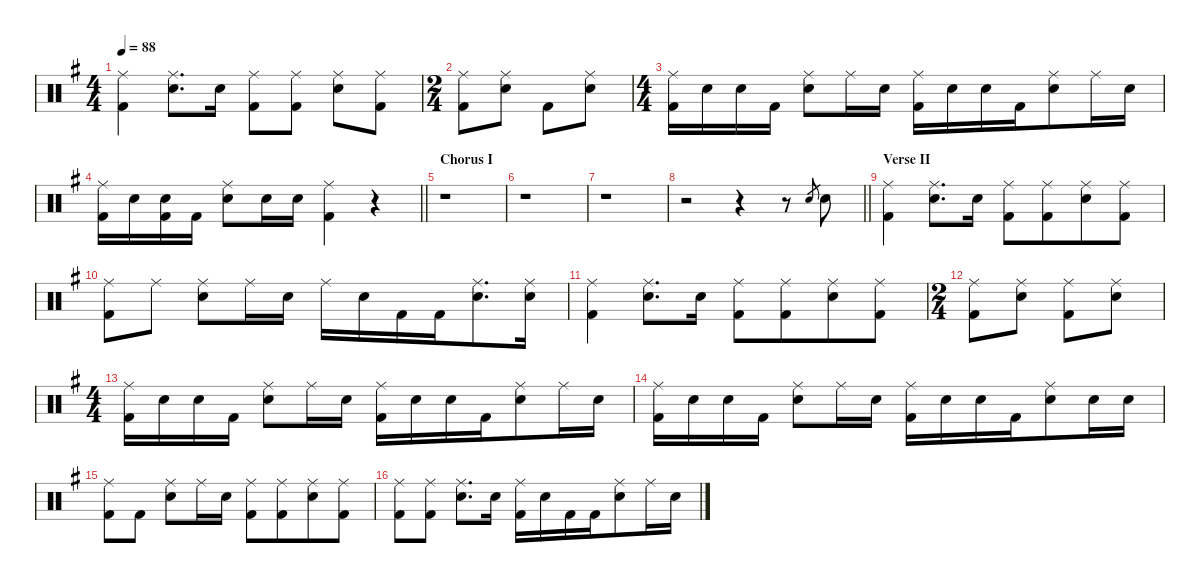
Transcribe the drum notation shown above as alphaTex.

\defaultSystemsLayout 4
\hideDynamics
\bracketExtendMode nobrackets
\singleTrackTrackNamePolicy hidden
\multiTrackTrackNamePolicy hidden
\firstSystemTrackNameMode fullname
\firstSystemTrackNameOrientation horizontal
\otherSystemsTrackNameOrientation horizontal
\track ("Drums" "drm.") {instrument percussion}
\staff {score}
\articulation defaults
\ts (4 4)
\tempo 88
\clef neutral
\ks g
("Ride (middle)"{acc forcenatural} "Kick (hit) 2"{acc forcenatural}).4{dy f beam Down} ("Ride (middle)"{acc forcenatural} "Snare (hit) 2"{acc forcenatural}).8{d beam Down} "Snare (hit) 2"{acc forcenatural}.16{beam Down} ("Ride (middle)"{acc forcenatural} "Kick (hit) 2"{acc forcenatural}).8{beam Down} ("Ride (middle)"{acc forcenatural} "Kick (hit) 2"{acc forcenatural}).8{beam Down} ("Ride (middle)"{acc forcenatural} "Snare (hit) 2"{acc forcenatural}).8{beam Down} ("Ride (middle)"{acc forcenatural} "Kick (hit) 2"{acc forcenatural}).8{beam Down} |
\ts (2 4)
\beaming (8 2 2)
("Ride (middle)"{acc forcenatural} "Kick (hit) 2"{acc forcenatural}).8{beam Down} ("Ride (middle)"{acc forcenatural} "Snare (hit) 2"{acc forcenatural}).8{beam Down} "Kick (hit) 2"{acc forcenatural}.8{beam Down} ("Ride (middle)"{acc forcenatural} "Snare (hit) 2"{acc forcenatural}).8{beam Down} |
\ts (4 4)
\beaming (8 2 2 4)
("Ride (middle)"{acc forcenatural} "Kick (hit) 2"{acc forcenatural}).16{beam Down} "Snare (hit) 2"{acc forcenatural}.16{beam Down} "Snare (hit) 2"{acc forcenatural}.16{beam Down} "Kick (hit) 2"{acc forcenatural}.16{beam Down} ("Ride (middle)"{acc forcenatural} "Snare (hit) 2"{acc forcenatural}).8{beam Down} "Ride (middle)"{acc forcenatural}.16{beam Down} "Snare (hit) 2"{acc forcenatural}.16{beam Down} ("Ride (middle)"{acc forcenatural} "Kick (hit) 2"{acc forcenatural}).16{beam Down} "Snare (hit) 2"{acc forcenatural}.16{beam Down} "Snare (hit) 2"{acc forcenatural}.16{beam Down} "Kick (hit) 2"{acc forcenatural}.16{beam Down} ("Ride (middle)"{acc forcenatural} "Snare (hit) 2"{acc forcenatural}).8{beam Down} "Ride (middle)"{acc forcenatural}.16{beam Down} "Snare (hit) 2"{acc forcenatural}.16{beam Down} |
\barLineRight lightlight
("Ride (middle)"{acc forcenatural} "Kick (hit) 2"{acc forcenatural}).16{beam Down} "Snare (hit) 2"{acc forcenatural}.16{beam Down} ("Snare (hit) 2"{acc forcenatural} "Kick (hit) 2"{acc forcenatural}).16{beam Down} "Kick (hit) 2"{acc forcenatural}.16{beam Down} ("Ride (middle)"{acc forcenatural} "Snare (hit) 2"{acc forcenatural}).8{beam Down} "Snare (hit) 2"{acc forcenatural}.16{beam Down} "Snare (hit) 2"{acc forcenatural}.16{beam Down} ("Ride (middle)"{acc forcenatural} "Kick (hit) 2"{acc forcenatural}).4{beam Down} r.4{beam Down} |
\section ("" "Chorus I")
r.1{beam Down} |
r.1{beam Down} |
r.1{beam Down} |
\barLineRight lightlight
r.2{beam Down} r.4{beam Down} r.8{beam Down} "Snare (hit) 2"{acc forcenatural}.8{gr dy mf beam Up} "Snare (hit) 2"{acc forcenatural}.8{dy f beam Down} |
\section ("" "Verse II")
("Ride (middle)"{acc forcenatural} "Kick (hit) 2"{acc forcenatural}).4{beam Down} ("Ride (middle)"{acc forcenatural} "Snare (hit) 2"{acc forcenatural}).8{d beam Down} "Snare (hit) 2"{acc forcenatural}.16{beam Down} ("Ride (middle)"{acc forcenatural} "Kick (hit) 2"{acc forcenatural}).8{beam Down} ("Ride (middle)"{acc forcenatural} "Kick (hit) 2"{acc forcenatural}).8{beam Down} ("Ride (middle)"{acc forcenatural} "Snare (hit) 2"{acc forcenatural}).8{beam Down} ("Ride (middle)"{acc forcenatural} "Kick (hit) 2"{acc forcenatural}).8{beam Down} |
("Ride (middle)"{acc forcenatural} "Kick (hit) 2"{acc forcenatural}).8{beam Down} "Ride (middle)"{acc forcenatural}.8{beam Down} ("Ride (middle)"{acc forcenatural} "Snare (hit) 2"{acc forcenatural}).8{beam Down} "Ride (middle)"{acc forcenatural}.16{beam Down} "Snare (hit) 2"{acc forcenatural}.16{beam Down} "Ride (middle)"{acc forcenatural}.16{beam Down} "Snare (hit) 2"{acc forcenatural}.16{beam Down} "Kick (hit) 2"{acc forcenatural}.16{beam Down} "Kick (hit) 2"{acc forcenatural}.16{beam Down} ("Ride (middle)"{acc forcenatural} "Snare (hit) 2"{acc forcenatural}).8{d beam Down} ("Ride (middle)"{acc forcenatural} "Snare (hit) 2"{acc forcenatural}).16{beam Down} |
("Ride (middle)"{acc forcenatural} "Kick (hit) 2"{acc forcenatural}).4{beam Down} ("Ride (middle)"{acc forcenatural} "Snare (hit) 2"{acc forcenatural}).8{d beam Down} "Snare (hit) 2"{acc forcenatural}.16{beam Down} ("Ride (middle)"{acc forcenatural} "Kick (hit) 2"{acc forcenatural}).8{beam Down} ("Ride (middle)"{acc forcenatural} "Kick (hit) 2"{acc forcenatural}).8{beam Down} ("Ride (middle)"{acc forcenatural} "Snare (hit) 2"{acc forcenatural}).8{beam Down} ("Ride (middle)"{acc forcenatural} "Kick (hit) 2"{acc forcenatural}).8{beam Down} |
\ts (2 4)
\beaming (8 2 2)
("Ride (middle)"{acc forcenatural} "Kick (hit) 2"{acc forcenatural}).8{beam Down} ("Ride (middle)"{acc forcenatural} "Snare (hit) 2"{acc forcenatural}).8{beam Down} ("Ride (middle)"{acc forcenatural} "Kick (hit) 2"{acc forcenatural}).8{beam Down} ("Ride (middle)"{acc forcenatural} "Snare (hit) 2"{acc forcenatural}).8{beam Down} |
\ts (4 4)
\beaming (8 2 2 4)
("Ride (middle)"{acc forcenatural} "Kick (hit) 2"{acc forcenatural}).16{beam Down} "Snare (hit) 2"{acc forcenatural}.16{beam Down} "Snare (hit) 2"{acc forcenatural}.16{beam Down} "Kick (hit) 2"{acc forcenatural}.16{beam Down} ("Ride (middle)"{acc forcenatural} "Snare (hit) 2"{acc forcenatural}).8{beam Down} "Ride (middle)"{acc forcenatural}.16{beam Down} "Snare (hit) 2"{acc forcenatural}.16{beam Down} ("Ride (middle)"{acc forcenatural} "Kick (hit) 2"{acc forcenatural}).16{beam Down} "Snare (hit) 2"{acc forcenatural}.16{beam Down} "Snare (hit) 2"{acc forcenatural}.16{beam Down} "Kick (hit) 2"{acc forcenatural}.16{beam Down} ("Ride (middle)"{acc forcenatural} "Snare (hit) 2"{acc forcenatural}).8{beam Down} "Ride (middle)"{acc forcenatural}.16{beam Down} "Snare (hit) 2"{acc forcenatural}.16{beam Down} |
("Ride (middle)"{acc forcenatural} "Kick (hit) 2"{acc forcenatural}).16{beam Down} "Snare (hit) 2"{acc forcenatural}.16{beam Down} "Snare (hit) 2"{acc forcenatural}.16{beam Down} "Kick (hit) 2"{acc forcenatural}.16{beam Down} ("Ride (middle)"{acc forcenatural} "Snare (hit) 2"{acc forcenatural}).8{beam Down} "Ride (middle)"{acc forcenatural}.16{beam Down} "Snare (hit) 2"{acc forcenatural}.16{beam Down} ("Ride (middle)"{acc forcenatural} "Kick (hit) 2"{acc forcenatural}).16{beam Down} "Snare (hit) 2"{acc forcenatural}.16{beam Down} "Snare (hit) 2"{acc forcenatural}.16{beam Down} "Kick (hit) 2"{acc forcenatural}.16{beam Down} ("Ride (middle)"{acc forcenatural} "Snare (hit) 2"{acc forcenatural}).8{beam Down} "Snare (hit) 2"{acc forcenatural}.16{beam Down} "Snare (hit) 2"{acc forcenatural}.16{beam Down} |
("Ride (middle)"{acc forcenatural} "Kick (hit) 2"{acc forcenatural}).8{beam Down} "Kick (hit) 2"{acc forcenatural}.8{beam Down} ("Ride (middle)"{acc forcenatural} "Snare (hit) 2"{acc forcenatural}).8{beam Down} "Ride (middle)"{acc forcenatural}.16{beam Down} "Snare (hit) 2"{acc forcenatural}.16{beam Down} ("Ride (middle)"{acc forcenatural} "Kick (hit) 2"{acc forcenatural}).8{beam Down} ("Ride (middle)"{acc forcenatural} "Kick (hit) 2"{acc forcenatural}).8{beam Down} ("Ride (middle)"{acc forcenatural} "Snare (hit) 2"{acc forcenatural}).8{beam Down} ("Ride (middle)"{acc forcenatural} "Kick (hit) 2"{acc forcenatural}).8{beam Down} |
("Ride (middle)"{acc forcenatural} "Kick (hit) 2"{acc forcenatural}).8{beam Down} ("Ride (middle)"{acc forcenatural} "Kick (hit) 2"{acc forcenatural}).8{beam Down} ("Ride (middle)"{acc forcenatural} "Snare (hit) 2"{acc forcenatural}).8{d beam Down} "Snare (hit) 2"{acc forcenatural}.16{beam Down} ("Ride (middle)"{acc forcenatural} "Kick (hit) 2"{acc forcenatural}).16{beam Down} "Snare (hit) 2"{acc forcenatural}.16{beam Down} "Kick (hit) 2"{acc forcenatural}.16{beam Down} "Kick (hit) 2"{acc forcenatural}.16{beam Down} ("Ride (middle)"{acc forcenatural} "Snare (hit) 2"{acc forcenatural}).8{beam Down} "Ride (middle)"{acc forcenatural}.16{beam Down} "Snare (hit) 2"{acc forcenatural}.16{beam Down}
